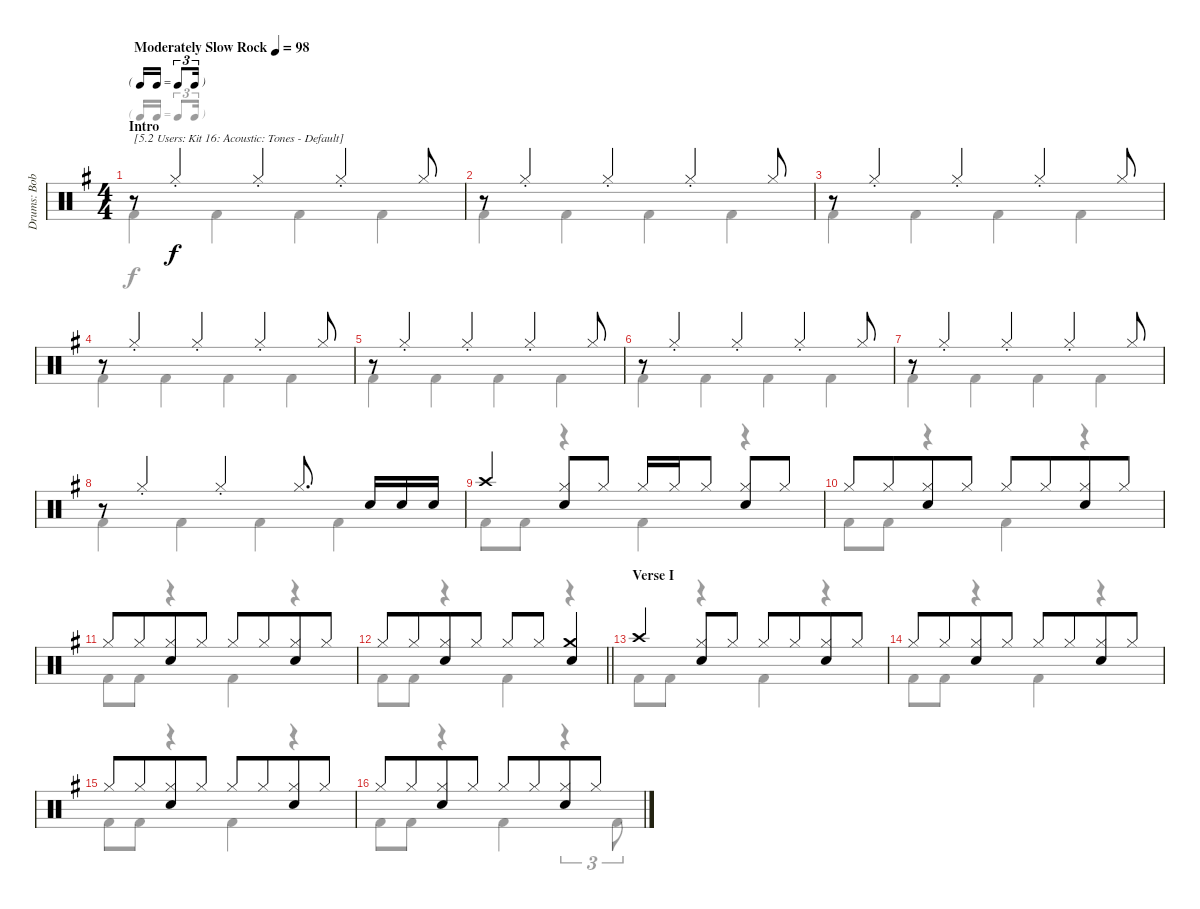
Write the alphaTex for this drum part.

\track ("Drums: Bobby" "Drums: Bob") {instrument percussion}
\staff {score}
\articulation defaults
\voice
\ts (4 4)
\tf triplet16th
\section ("" "Intro")
\tempo (98 "Moderately Slow Rock")
\clef neutral
\ks g
r.8{txt "[5.2 Users: Kit 16: Acoustic: Tones - Default]" dy f} "Hi-Hat (closed)"{st}.4 "Hi-Hat (closed)"{st}.4 "Hi-Hat (closed)"{st}.4 "Hi-Hat (closed)".8 |
r.8 "Hi-Hat (closed)"{st}.4 "Hi-Hat (closed)"{st}.4 "Hi-Hat (closed)"{st}.4 "Hi-Hat (closed)".8 |
r.8 "Hi-Hat (closed)"{st}.4 "Hi-Hat (closed)"{st}.4 "Hi-Hat (closed)"{st}.4 "Hi-Hat (closed)".8 |
r.8 "Hi-Hat (closed)"{st}.4 "Hi-Hat (closed)"{st}.4 "Hi-Hat (closed)"{st}.4 "Hi-Hat (closed)".8 |
r.8 "Hi-Hat (closed)"{st}.4 "Hi-Hat (closed)"{st}.4 "Hi-Hat (closed)"{st}.4 "Hi-Hat (closed)".8 |
r.8 "Hi-Hat (closed)"{st}.4 "Hi-Hat (closed)"{st}.4 "Hi-Hat (closed)"{st}.4 "Hi-Hat (closed)".8 |
r.8 "Hi-Hat (closed)"{st}.4 "Hi-Hat (closed)"{st}.4 "Hi-Hat (closed)"{st}.4 "Hi-Hat (closed)".8 |
r.8 "Hi-Hat (closed)"{st}.4 "Hi-Hat (closed)"{st}.4 "Hi-Hat (closed)".8{d} "Snare (hit) 2".16 "Snare (hit) 2".16 "Snare (hit) 2".16 |
"Crash high (hit)".4 ("Hi-Hat (closed)" "Snare (hit) 2").8 "Hi-Hat (closed)".8 "Hi-Hat (closed)".16 "Hi-Hat (closed)".16 "Hi-Hat (closed)".8 ("Hi-Hat (closed)" "Snare (hit) 2").8 "Hi-Hat (closed)".8 |
"Hi-Hat (closed)".8 "Hi-Hat (closed)".8{beam merge} ("Hi-Hat (closed)" "Snare (hit) 2").8 "Hi-Hat (closed)".8 "Hi-Hat (closed)".8 "Hi-Hat (closed)".8{beam merge} ("Hi-Hat (closed)" "Snare (hit) 2").8 "Hi-Hat (closed)".8 |
"Hi-Hat (closed)".8 "Hi-Hat (closed)".8{beam merge} ("Hi-Hat (closed)" "Snare (hit) 2").8 "Hi-Hat (closed)".8 "Hi-Hat (closed)".8 "Hi-Hat (closed)".8{beam merge} ("Hi-Hat (closed)" "Snare (hit) 2").8 "Hi-Hat (closed)".8 |
\barLineRight lightlight "Hi-Hat (closed)".8 "Hi-Hat (closed)".8{beam merge}
("Hi-Hat (closed)" "Snare (hit) 2").8 "Hi-Hat (closed)".8 "Hi-Hat (closed)".8 "Hi-Hat (closed)".8{beam merge} ("Crash medium (hit)" "Snare (hit) 2").4 |
\section ("" "Verse I")
"Crash high (hit)".4 ("Hi-Hat (closed)" "Snare (hit) 2").8 "Hi-Hat (closed)".8 "Hi-Hat (closed)".8 "Hi-Hat (closed)".8{beam merge} ("Hi-Hat (closed)" "Snare (hit) 2").8 "Hi-Hat (closed)".8 |
"Hi-Hat (closed)".8 "Hi-Hat (closed)".8{beam merge} ("Hi-Hat (closed)" "Snare (hit) 2").8 "Hi-Hat (closed)".8 "Hi-Hat (closed)".8 "Hi-Hat (closed)".8{beam merge} ("Hi-Hat (closed)" "Snare (hit) 2").8 "Hi-Hat (closed)".8 |
"Hi-Hat (closed)".8 "Hi-Hat (closed)".8{beam merge} ("Hi-Hat (closed)" "Snare (hit) 2").8 "Hi-Hat (closed)".8 "Hi-Hat (closed)".8 "Hi-Hat (closed)".8{beam merge} ("Hi-Hat (closed)" "Snare (hit) 2").8 "Hi-Hat (closed)".8 |
"Hi-Hat (closed)".8 "Hi-Hat (closed)".8{beam merge} ("Hi-Hat (closed)" "Snare (hit) 2").8 "Hi-Hat (closed)".8 "Hi-Hat (closed)".8 "Hi-Hat (closed)".8{beam merge} ("Hi-Hat (closed)" "Snare (hit) 2").8 "Hi-Hat (closed)".8
\voice
\clef neutral
\ottava regular
\simile none
\ks g "Kick (hit) 2".4{dy f} "Kick (hit) 2".4 "Kick (hit) 2".4 "Kick (hit) 2".4
|
"Kick (hit) 2".4 "Kick (hit) 2".4 "Kick (hit) 2".4 "Kick (hit) 2".4 |
"Kick (hit) 2".4 "Kick (hit) 2".4 "Kick (hit) 2".4 "Kick (hit) 2".4 |
"Kick (hit) 2".4 "Kick (hit) 2".4 "Kick (hit) 2".4 "Kick (hit) 2".4 |
"Kick (hit) 2".4 "Kick (hit) 2".4 "Kick (hit) 2".4 "Kick (hit) 2".4 |
"Kick (hit) 2".4 "Kick (hit) 2".4 "Kick (hit) 2".4 "Kick (hit) 2".4 |
"Kick (hit) 2".4 "Kick (hit) 2".4 "Kick (hit) 2".4 "Kick (hit) 2".4 |
"Kick (hit) 2".4 "Kick (hit) 2".4 "Kick (hit) 2".4 "Kick (hit) 2".4 |
"Kick (hit) 2".8 "Kick (hit) 2".8 r.4 "Kick (hit) 2".4 r.4 |
"Kick (hit) 2".8 "Kick (hit) 2".8 r.4 "Kick (hit) 2".4 r.4 |
"Kick (hit) 2".8 "Kick (hit) 2".8 r.4 "Kick (hit) 2".4 r.4 |
\barLineRight lightlight "Kick (hit) 2".8 "Kick (hit) 2".8
r.4 "Kick (hit) 2".4 r.4 |
"Kick (hit) 2".8 "Kick (hit) 2".8 r.4 "Kick (hit) 2".4 r.4 |
"Kick (hit) 2".8 "Kick (hit) 2".8 r.4 "Kick (hit) 2".4 r.4 |
"Kick (hit) 2".8 "Kick (hit) 2".8 r.4 "Kick (hit) 2".4 r.4 |
"Kick (hit) 2".8 "Kick (hit) 2".8 r.4 "Kick (hit) 2".4 r.4{tu (3 2)} "Kick (hit) 2".8{tu (3 2)}
